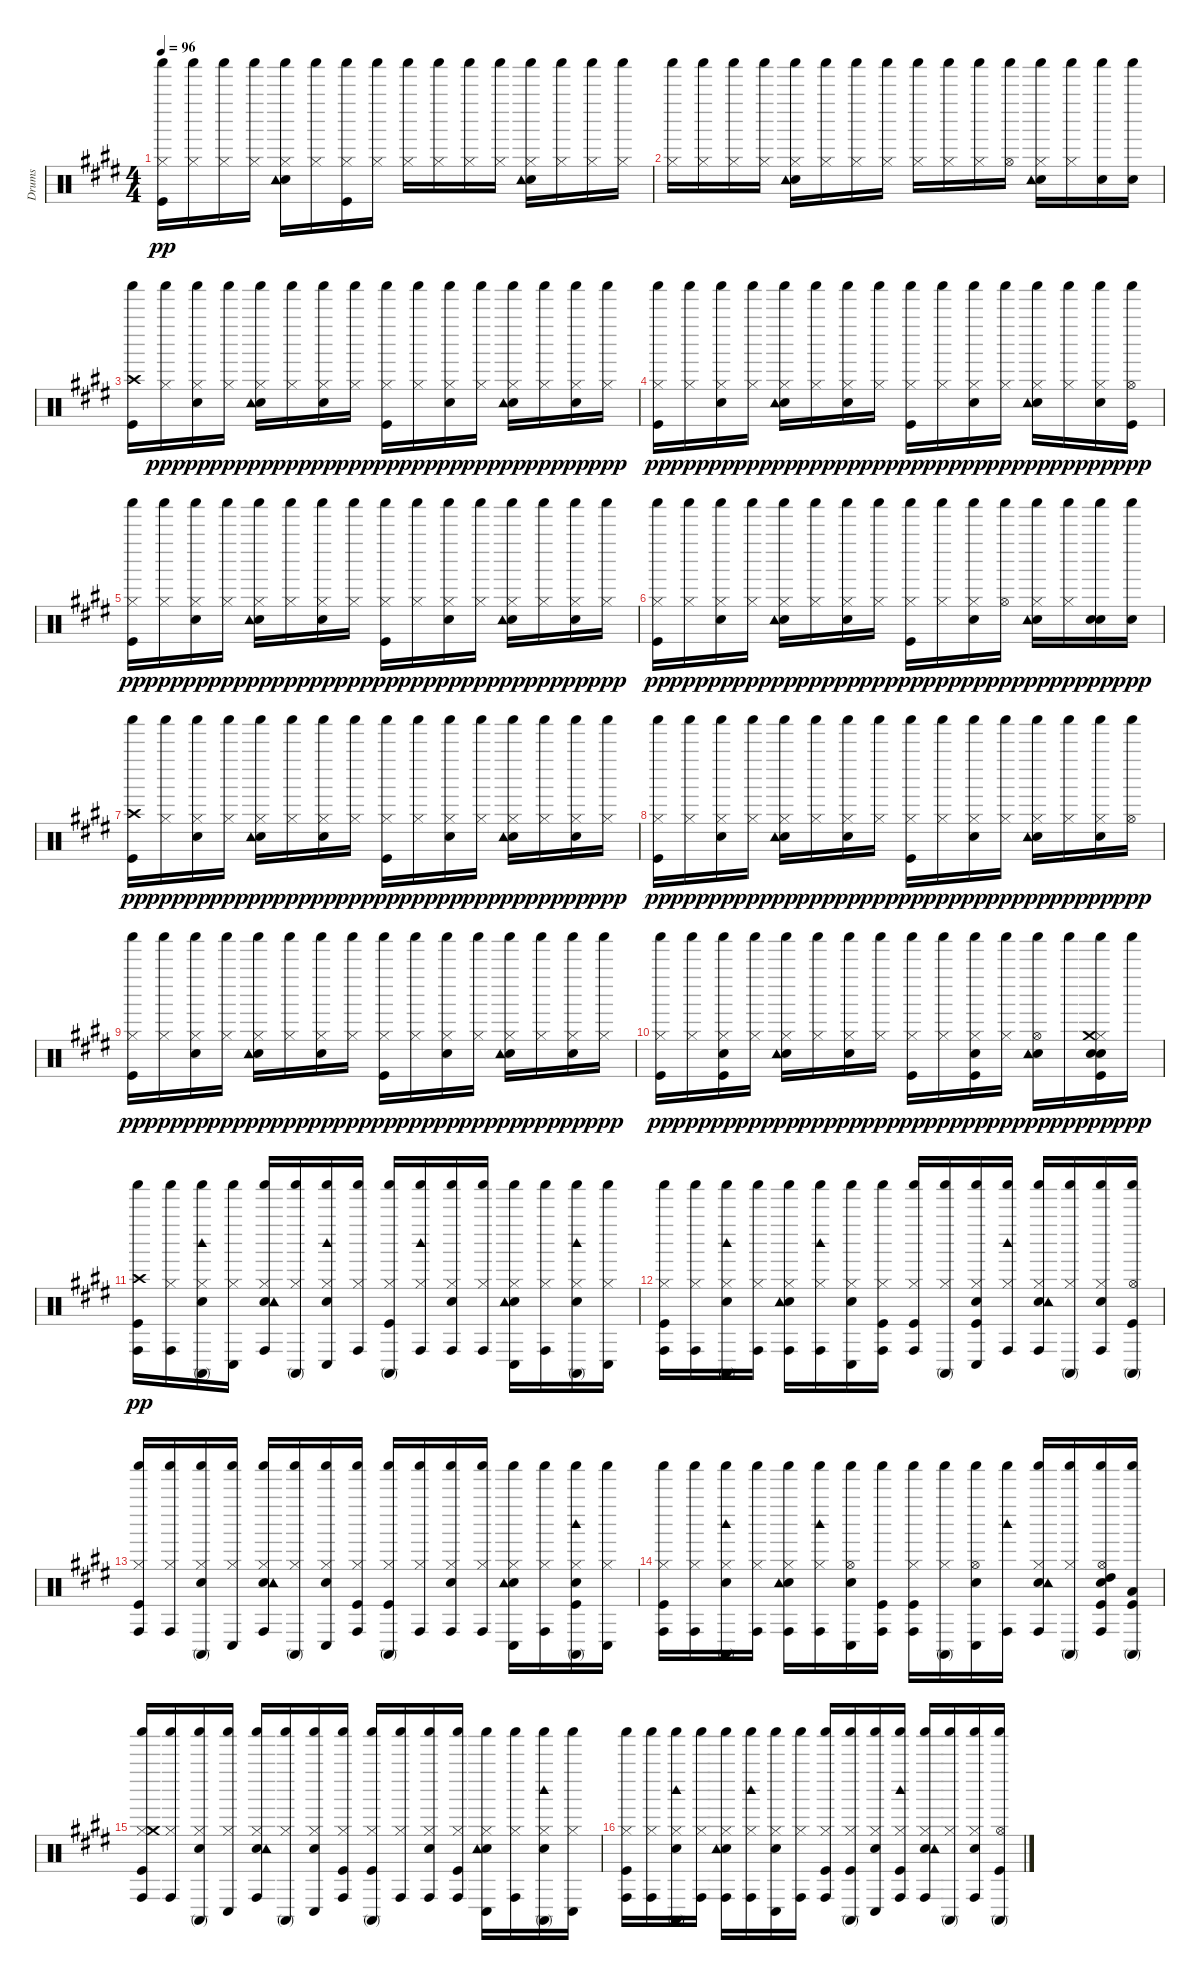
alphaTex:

\track ("Drums" "Drums") {instrument percussion}
\staff {score}
\articulation defaults
\ts (4 4)
\tempo 96
\clef neutral
\ks e
("Kick (hit)" "Hi-Hat (closed)" "Shaker (hit)").16{dy pp} ("Hi-Hat (closed)" "Shaker (hit)").16 ("Hi-Hat (closed)" "Shaker (hit)").16 ("Hi-Hat (closed)" "Shaker (hit)").16 ("Electric Snare (hit)" "Hi-Hat (closed)" "Tambourine (hit)" "Shaker (hit)").16 ("Hi-Hat (closed)" "Shaker (hit)").16 ("Kick (hit)" "Hi-Hat (closed)" "Shaker (hit)").16 ("Hi-Hat (closed)" "Shaker (hit)").16 ("Hi-Hat (closed)" "Shaker (hit)").16 ("Hi-Hat (closed)" "Shaker (hit)").16 ("Hi-Hat (closed)" "Shaker (hit)").16 ("Hi-Hat (closed)" "Shaker (hit)").16 ("Electric Snare (hit)" "Hi-Hat (closed)" "Tambourine (hit)" "Shaker (hit)").16 ("Hi-Hat (closed)" "Shaker (hit)").16 ("Hi-Hat (closed)" "Shaker (hit)").16 ("Hi-Hat (closed)" "Shaker (hit)").16 |
("Hi-Hat (closed)" "Shaker (hit)").16 ("Hi-Hat (closed)" "Shaker (hit)").16 ("Hi-Hat (closed)" "Shaker (hit)").16 ("Hi-Hat (closed)" "Shaker (hit)").16 ("Electric Snare (hit)" "Hi-Hat (closed)" "Tambourine (hit)" "Shaker (hit)").16 ("Hi-Hat (closed)" "Shaker (hit)").16 ("Hi-Hat (closed)" "Shaker (hit)").16 ("Hi-Hat (closed)" "Shaker (hit)").16 ("Hi-Hat (closed)" "Shaker (hit)").16 ("Hi-Hat (closed)" "Shaker (hit)").16 ("Hi-Hat (closed)" "Shaker (hit)").16 ("Hi-Hat (open)" "Shaker (hit)").16 ("Electric Snare (hit)" "Hi-Hat (closed)" "Tambourine (hit)" "Shaker (hit)").16 ("Hi-Hat (closed)" "Shaker (hit)").16 ("Electric Snare (hit)" "Shaker (hit)").16 ("Electric Snare (hit)" "Shaker (hit)").16 |
("Kick (hit)" "Crash high (hit)" "Shaker (hit)").16 ("Hi-Hat (closed)" "Shaker (hit)").16{dy ppp} ("Hand Clap (hit)" "Hi-Hat (closed)" "Shaker (hit)").16{dy pp} ("Hi-Hat (closed)" "Shaker (hit)").16{dy ppp} ("Electric Snare (hit)" "Hi-Hat (closed)" "Tambourine (hit)" "Shaker (hit)").16{dy pp} ("Hi-Hat (closed)" "Shaker (hit)").16{dy ppp} ("Hand Clap (hit)" "Hi-Hat (closed)" "Shaker (hit)").16{dy pp} ("Hi-Hat (closed)" "Shaker (hit)").16{dy ppp} ("Kick (hit)" "Hi-Hat (closed)" "Shaker (hit)").16{dy pp} ("Hi-Hat (closed)" "Shaker (hit)").16{dy ppp} ("Hand Clap (hit)" "Hi-Hat (closed)" "Shaker (hit)").16{dy pp} ("Hi-Hat (closed)" "Shaker (hit)").16{dy ppp} ("Electric Snare (hit)" "Hi-Hat (closed)" "Tambourine (hit)" "Shaker (hit)").16{dy pp} ("Hi-Hat (closed)" "Shaker (hit)").16{dy ppp} ("Hand Clap (hit)" "Hi-Hat (closed)" "Shaker (hit)").16{dy pp} ("Hi-Hat (closed)" "Shaker (hit)").16{dy ppp} |
("Kick (hit)" "Hi-Hat (closed)" "Shaker (hit)").16{dy pp} ("Hi-Hat (closed)" "Shaker (hit)").16{dy ppp} ("Hand Clap (hit)" "Hi-Hat (closed)" "Shaker (hit)").16{dy pp} ("Hi-Hat (closed)" "Shaker (hit)").16{dy ppp} ("Electric Snare (hit)" "Hi-Hat (closed)" "Tambourine (hit)" "Shaker (hit)").16{dy pp} ("Hi-Hat (closed)" "Shaker (hit)").16{dy ppp} ("Hand Clap (hit)" "Hi-Hat (closed)" "Shaker (hit)").16{dy pp} ("Hi-Hat (closed)" "Shaker (hit)").16{dy ppp} ("Kick (hit)" "Hi-Hat (closed)" "Shaker (hit)").16{dy pp} ("Hi-Hat (closed)" "Shaker (hit)").16{dy ppp} ("Hand Clap (hit)" "Hi-Hat (closed)" "Shaker (hit)").16{dy pp} ("Hi-Hat (closed)" "Shaker (hit)").16{dy ppp} ("Electric Snare (hit)" "Hi-Hat (closed)" "Tambourine (hit)" "Shaker (hit)").16{dy pp} ("Hi-Hat (closed)" "Shaker (hit)").16{dy ppp} ("Hand Clap (hit)" "Hi-Hat (closed)" "Shaker (hit)").16{dy pp} ("Kick (hit)" "Hi-Hat (open)" "Shaker (hit)").16{dy ppp} |
("Kick (hit)" "Hi-Hat (closed)" "Shaker (hit)").16{dy pp} ("Hi-Hat (closed)" "Shaker (hit)").16{dy ppp} ("Hand Clap (hit)" "Hi-Hat (closed)" "Shaker (hit)").16{dy pp} ("Hi-Hat (closed)" "Shaker (hit)").16{dy ppp} ("Electric Snare (hit)" "Hi-Hat (closed)" "Tambourine (hit)" "Shaker (hit)").16{dy pp} ("Hi-Hat (closed)" "Shaker (hit)").16{dy ppp} ("Hand Clap (hit)" "Hi-Hat (closed)" "Shaker (hit)").16{dy pp} ("Hi-Hat (closed)" "Shaker (hit)").16{dy ppp} ("Kick (hit)" "Hi-Hat (closed)" "Shaker (hit)").16{dy pp} ("Hi-Hat (closed)" "Shaker (hit)").16{dy ppp} ("Hand Clap (hit)" "Hi-Hat (closed)" "Shaker (hit)").16{dy pp} ("Hi-Hat (closed)" "Shaker (hit)").16{dy ppp} ("Electric Snare (hit)" "Hi-Hat (closed)" "Tambourine (hit)" "Shaker (hit)").16{dy pp} ("Hi-Hat (closed)" "Shaker (hit)").16{dy ppp} ("Hand Clap (hit)" "Hi-Hat (closed)" "Shaker (hit)").16{dy pp} ("Hi-Hat (closed)" "Shaker (hit)").16{dy ppp} |
("Kick (hit)" "Hi-Hat (closed)" "Shaker (hit)").16{dy pp} ("Hi-Hat (closed)" "Shaker (hit)").16{dy ppp} ("Hand Clap (hit)" "Hi-Hat (closed)" "Shaker (hit)").16{dy pp} ("Hi-Hat (closed)" "Shaker (hit)").16{dy ppp} ("Electric Snare (hit)" "Hi-Hat (closed)" "Tambourine (hit)" "Shaker (hit)").16{dy pp} ("Hi-Hat (closed)" "Shaker (hit)").16{dy ppp} ("Hand Clap (hit)" "Hi-Hat (closed)" "Shaker (hit)").16{dy pp} ("Hi-Hat (closed)" "Shaker (hit)").16{dy ppp} ("Kick (hit)" "Hi-Hat (closed)" "Shaker (hit)").16{dy pp} ("Hi-Hat (closed)" "Shaker (hit)").16{dy ppp} ("Hand Clap (hit)" "Hi-Hat (closed)" "Shaker (hit)").16{dy pp} ("Hi-Hat (open)" "Shaker (hit)").16{dy ppp} ("Electric Snare (hit)" "Hi-Hat (closed)" "Tambourine (hit)" "Shaker (hit)").16{dy pp} ("Hi-Hat (closed)" "Shaker (hit)").16{dy ppp} ("Hand Clap (hit)" "Electric Snare (hit)" "Shaker (hit)").16{dy pp} ("Electric Snare (hit)" "Shaker (hit)").16{dy ppp} |
("Kick (hit)" "Crash high (hit)" "Shaker (hit)").16{dy pp} ("Hi-Hat (closed)" "Shaker (hit)").16{dy ppp} ("Hand Clap (hit)" "Hi-Hat (closed)" "Shaker (hit)").16{dy pp} ("Hi-Hat (closed)" "Shaker (hit)").16{dy ppp} ("Electric Snare (hit)" "Hi-Hat (closed)" "Tambourine (hit)" "Shaker (hit)").16{dy pp} ("Hi-Hat (closed)" "Shaker (hit)").16{dy ppp} ("Hand Clap (hit)" "Hi-Hat (closed)" "Shaker (hit)").16{dy pp} ("Hi-Hat (closed)" "Shaker (hit)").16{dy ppp} ("Kick (hit)" "Hi-Hat (closed)" "Shaker (hit)").16{dy pp} ("Hi-Hat (closed)" "Shaker (hit)").16{dy ppp} ("Hand Clap (hit)" "Hi-Hat (closed)" "Shaker (hit)").16{dy pp} ("Hi-Hat (closed)" "Shaker (hit)").16{dy ppp} ("Electric Snare (hit)" "Hi-Hat (closed)" "Tambourine (hit)" "Shaker (hit)").16{dy pp} ("Hi-Hat (closed)" "Shaker (hit)").16{dy ppp} ("Hand Clap (hit)" "Hi-Hat (closed)" "Shaker (hit)").16{dy pp} ("Hi-Hat (closed)" "Shaker (hit)").16{dy ppp} |
("Kick (hit)" "Hi-Hat (closed)" "Shaker (hit)").16{dy pp} ("Hi-Hat (closed)" "Shaker (hit)").16{dy ppp} ("Hand Clap (hit)" "Hi-Hat (closed)" "Shaker (hit)").16{dy pp} ("Hi-Hat (closed)" "Shaker (hit)").16{dy ppp} ("Electric Snare (hit)" "Hi-Hat (closed)" "Tambourine (hit)" "Shaker (hit)").16{dy pp} ("Hi-Hat (closed)" "Shaker (hit)").16{dy ppp} ("Hand Clap (hit)" "Hi-Hat (closed)" "Shaker (hit)").16{dy pp} ("Hi-Hat (closed)" "Shaker (hit)").16{dy ppp} ("Kick (hit)" "Hi-Hat (closed)" "Shaker (hit)").16{dy pp} ("Hi-Hat (closed)" "Shaker (hit)").16{dy ppp} ("Hand Clap (hit)" "Hi-Hat (closed)" "Shaker (hit)").16{dy pp} ("Hi-Hat (closed)" "Shaker (hit)").16{dy ppp} ("Electric Snare (hit)" "Hi-Hat (closed)" "Tambourine (hit)" "Shaker (hit)").16{dy pp} ("Hi-Hat (closed)" "Shaker (hit)").16{dy ppp} ("Hand Clap (hit)" "Hi-Hat (closed)" "Shaker (hit)").16{dy pp} ("Hi-Hat (open)" "Shaker (hit)").16{dy ppp} |
("Kick (hit)" "Hi-Hat (closed)" "Shaker (hit)").16{dy pp} ("Hi-Hat (closed)" "Shaker (hit)").16{dy ppp} ("Hand Clap (hit)" "Hi-Hat (closed)" "Shaker (hit)").16{dy pp} ("Hi-Hat (closed)" "Shaker (hit)").16{dy ppp} ("Electric Snare (hit)" "Hi-Hat (closed)" "Tambourine (hit)" "Shaker (hit)").16{dy pp} ("Hi-Hat (closed)" "Shaker (hit)").16{dy ppp} ("Hand Clap (hit)" "Hi-Hat (closed)" "Shaker (hit)").16{dy pp} ("Hi-Hat (closed)" "Shaker (hit)").16{dy ppp} ("Kick (hit)" "Hi-Hat (closed)" "Shaker (hit)").16{dy pp} ("Hi-Hat (closed)" "Shaker (hit)").16{dy ppp} ("Hand Clap (hit)" "Hi-Hat (closed)" "Shaker (hit)").16{dy pp} ("Hi-Hat (closed)" "Shaker (hit)").16{dy ppp} ("Electric Snare (hit)" "Hi-Hat (closed)" "Tambourine (hit)" "Shaker (hit)").16{dy pp} ("Hi-Hat (closed)" "Shaker (hit)").16{dy ppp} ("Hand Clap (hit)" "Hi-Hat (closed)" "Shaker (hit)").16{dy pp} ("Hi-Hat (closed)" "Shaker (hit)").16{dy ppp} |
("Kick (hit)" "Hi-Hat (closed)" "Shaker (hit)").16{dy pp} ("Hi-Hat (closed)" "Shaker (hit)").16{dy ppp} ("Kick (hit)" "Hand Clap (hit)" "Hi-Hat (closed)" "Shaker (hit)").16{dy pp} ("Hi-Hat (closed)" "Shaker (hit)").16{dy ppp} ("Electric Snare (hit)" "Hi-Hat (closed)" "Tambourine (hit)" "Shaker (hit)").16{dy pp} ("Hi-Hat (closed)" "Shaker (hit)").16{dy ppp} ("Hand Clap (hit)" "Hi-Hat (closed)" "Shaker (hit)").16{dy pp} ("Hi-Hat (closed)" "Shaker (hit)").16{dy ppp} ("Kick (hit)" "Hi-Hat (closed)" "Shaker (hit)").16{dy pp} ("Hi-Hat (closed)" "Shaker (hit)").16{dy ppp} ("Kick (hit)" "Hand Clap (hit)" "Hi-Hat (closed)" "Shaker (hit)").16{dy pp} ("Hi-Hat (closed)" "Shaker (hit)").16{dy ppp} ("Electric Snare (hit)" "Hi-Hat (open)" "Tambourine (hit)" "Shaker (hit)").16{dy pp} "Shaker (hit)".16{dy ppp} ("Kick (hit)" "Hand Clap (hit)" "Electric Snare (hit)" "Hi-Hat (closed)" "Crash medium (hit)" "Shaker (hit)").16{dy pp} "Shaker (hit)".16{dy ppp} |
("Kick (hit)" "Crash high (hit)" "Conga high (hit)" "Shaker (hit)").16{dy pp} ("Hi-Hat (closed)" "Conga high (hit)" "Shaker (hit)").16 ("Hand Clap (hit)" "Hi-Hat (closed)" "Conga high (mute)" "Woodblock high (hit)" "Shaker (hit)").16 ("Hi-Hat (closed)" "Conga low (hit)" "Shaker (hit)").16 ("Electric Snare (hit)" "Hi-Hat (closed)" "Tambourine (hit)" "Conga high (hit)" "Shaker (hit)").16 ("Hi-Hat (closed)" "Conga high (mute)" "Shaker (hit)").16 ("Hand Clap (hit)" "Hi-Hat (closed)" "Conga low (hit)" "Woodblock high (hit)" "Shaker (hit)").16 ("Hi-Hat (closed)" "Conga high (hit)" "Shaker (hit)").16 ("Kick (hit)" "Hi-Hat (closed)" "Conga high (mute)" "Shaker (hit)").16 ("Hi-Hat (closed)" "Conga high (hit)" "Woodblock high (hit)" "Shaker (hit)").16 ("Hand Clap (hit)" "Hi-Hat (closed)" "Conga high (hit)" "Shaker (hit)").16 ("Hi-Hat (closed)" "Conga high (hit)" "Shaker (hit)").16 ("Electric Snare (hit)" "Hi-Hat (closed)" "Tambourine (hit)" "Conga low (hit)" "Shaker (hit)").16 ("Hi-Hat (closed)" "Conga high (hit)" "Shaker (hit)").16 ("Hand Clap (hit)" "Hi-Hat (closed)" "Conga high (mute)" "Woodblock high (hit)" "Shaker (hit)").16 ("Hi-Hat (closed)" "Conga low (hit)" "Shaker (hit)").16 |
("Kick (hit)" "Hi-Hat (closed)" "Conga high (hit)" "Shaker (hit)").16 ("Hi-Hat (closed)" "Conga high (hit)" "Shaker (hit)").16 ("Hand Clap (hit)" "Hi-Hat (closed)" "Conga high (mute)" "Woodblock high (hit)" "Shaker (hit)").16 ("Hi-Hat (closed)" "Conga high (hit)" "Shaker (hit)").16 ("Electric Snare (hit)" "Hi-Hat (closed)" "Tambourine (hit)" "Conga high (hit)" "Shaker (hit)").16 ("Hi-Hat (closed)" "Conga high (hit)" "Woodblock high (hit)" "Shaker (hit)").16 ("Hand Clap (hit)" "Hi-Hat (closed)" "Conga low (hit)" "Shaker (hit)").16 ("Kick (hit)" "Hi-Hat (closed)" "Conga high (hit)" "Shaker (hit)").16 ("Kick (hit)" "Hi-Hat (closed)" "Conga high (hit)" "Shaker (hit)").16 ("Hi-Hat (closed)" "Conga high (mute)" "Shaker (hit)").16 ("Kick (hit)" "Hand Clap (hit)" "Hi-Hat (closed)" "Conga low (hit)" "Shaker (hit)").16 ("Hi-Hat (closed)" "Conga high (hit)" "Woodblock high (hit)" "Shaker (hit)").16 ("Electric Snare (hit)" "Hi-Hat (closed)" "Tambourine (hit)" "Conga high (hit)" "Shaker (hit)").16 ("Hi-Hat (closed)" "Conga high (mute)" "Shaker (hit)").16 ("Hand Clap (hit)" "Hi-Hat (closed)" "Conga high (hit)" "Shaker (hit)").16 ("Kick (hit)" "Hi-Hat (open)" "Conga high (mute)" "Shaker (hit)").16 |
("Kick (hit)" "Hi-Hat (closed)" "Conga high (hit)" "Shaker (hit)").16 ("Hi-Hat (closed)" "Conga high (hit)" "Shaker (hit)").16 ("Hand Clap (hit)" "Hi-Hat (closed)" "Conga high (mute)" "Shaker (hit)").16 ("Hi-Hat (closed)" "Conga low (hit)" "Shaker (hit)").16 ("Electric Snare (hit)" "Hi-Hat (closed)" "Tambourine (hit)" "Conga high (hit)" "Shaker (hit)").16 ("Hi-Hat (closed)" "Conga high (mute)" "Shaker (hit)").16 ("Hand Clap (hit)" "Hi-Hat (closed)" "Conga low (hit)" "Shaker (hit)").16 ("Kick (hit)" "Hi-Hat (closed)" "Conga high (hit)" "Shaker (hit)").16 ("Kick (hit)" "Hi-Hat (closed)" "Conga high (mute)" "Shaker (hit)").16 ("Hi-Hat (closed)" "Conga high (hit)" "Shaker (hit)").16 ("Hand Clap (hit)" "Hi-Hat (closed)" "Conga high (hit)" "Shaker (hit)").16 ("Hi-Hat (closed)" "Conga high (hit)" "Shaker (hit)").16 ("Electric Snare (hit)" "Hi-Hat (closed)" "Tambourine (hit)" "Conga low (hit)" "Shaker (hit)").16 ("Hi-Hat (closed)" "Conga high (hit)" "Shaker (hit)").16 ("Kick (hit)" "Hand Clap (hit)" "Hi-Hat (closed)" "Conga high (mute)" "Woodblock high (hit)" "Shaker (hit)").16 ("Hi-Hat (closed)" "Conga low (hit)" "Shaker (hit)").16 |
("Kick (hit)" "Hi-Hat (closed)" "Conga high (hit)" "Shaker (hit)").16 ("Hi-Hat (closed)" "Conga high (hit)" "Shaker (hit)").16 ("Hand Clap (hit)" "Hi-Hat (closed)" "Conga high (mute)" "Woodblock high (hit)" "Shaker (hit)").16 ("Hi-Hat (closed)" "Conga high (hit)" "Shaker (hit)").16 ("Electric Snare (hit)" "Hi-Hat (closed)" "Tambourine (hit)" "Conga high (hit)" "Shaker (hit)").16 ("Hi-Hat (closed)" "Conga high (hit)" "Woodblock high (hit)" "Shaker (hit)").16 ("Hand Clap (hit)" "Hi-Hat (open)" "Conga low (hit)" "Shaker (hit)").16 ("Kick (hit)" "Conga high (hit)" "Shaker (hit)").16 ("Kick (hit)" "Hi-Hat (closed)" "Conga high (hit)" "Shaker (hit)").16 ("Hi-Hat (closed)" "Conga high (mute)" "Shaker (hit)").16 ("Hand Clap (hit)" "Hi-Hat (open)" "Conga low (hit)" "Shaker (hit)").16 ("Conga high (hit)" "Woodblock high (hit)" "Shaker (hit)").16 ("Electric Snare (hit)" "Hi-Hat (closed)" "Tambourine (hit)" "Conga high (hit)" "Shaker (hit)").16 ("Hi-Hat (closed)" "Conga high (mute)" "Shaker (hit)").16 ("Kick (hit)" "Hand Clap (hit)" "Hi-Hat (open)" "High Tom (hit)" "Conga high (hit)" "Shaker (hit)").16 ("Kick (hit)" "Low Tom (hit)" "Conga high (mute)" "Shaker (hit)").16 |
("Kick (hit)" "Hi-Hat (closed)" "Crash medium (hit)" "Conga high (hit)" "Shaker (hit)").16 ("Hi-Hat (closed)" "Conga high (hit)" "Shaker (hit)").16 ("Hand Clap (hit)" "Hi-Hat (closed)" "Conga high (mute)" "Shaker (hit)").16 ("Hi-Hat (closed)" "Conga low (hit)" "Shaker (hit)").16 ("Electric Snare (hit)" "Hi-Hat (closed)" "Tambourine (hit)" "Conga high (hit)" "Shaker (hit)").16 ("Hi-Hat (closed)" "Conga high (mute)" "Shaker (hit)").16 ("Hand Clap (hit)" "Hi-Hat (closed)" "Conga low (hit)" "Shaker (hit)").16 ("Kick (hit)" "Hi-Hat (closed)" "Conga high (hit)" "Shaker (hit)").16 ("Kick (hit)" "Hi-Hat (closed)" "Conga high (mute)" "Shaker (hit)").16 ("Hi-Hat (closed)" "Conga high (hit)" "Shaker (hit)").16 ("Hand Clap (hit)" "Hi-Hat (closed)" "Conga high (hit)" "Shaker (hit)").16 ("Kick (hit)" "Hi-Hat (closed)" "Conga high (hit)" "Shaker (hit)").16 ("Electric Snare (hit)" "Hi-Hat (closed)" "Tambourine (hit)" "Conga low (hit)" "Shaker (hit)").16 ("Hi-Hat (closed)" "Conga high (hit)" "Shaker (hit)").16 ("Hand Clap (hit)" "Hi-Hat (closed)" "Conga high (mute)" "Woodblock high (hit)" "Shaker (hit)").16 ("Hi-Hat (closed)" "Conga low (hit)" "Shaker (hit)").16 |
("Kick (hit)" "Hi-Hat (closed)" "Conga high (hit)" "Shaker (hit)").16 ("Hi-Hat (closed)" "Conga high (hit)" "Shaker (hit)").16 ("Hand Clap (hit)" "Hi-Hat (closed)" "Conga high (mute)" "Woodblock high (hit)" "Shaker (hit)").16 ("Hi-Hat (closed)" "Conga high (hit)" "Shaker (hit)").16 ("Electric Snare (hit)" "Hi-Hat (closed)" "Tambourine (hit)" "Conga high (hit)" "Shaker (hit)").16 ("Hi-Hat (closed)" "Conga high (hit)" "Woodblock high (hit)" "Shaker (hit)").16 ("Hand Clap (hit)" "Hi-Hat (closed)" "Conga low (hit)" "Shaker (hit)").16 ("Hi-Hat (closed)" "Conga high (hit)" "Shaker (hit)").16 ("Kick (hit)" "Hi-Hat (closed)" "Conga high (hit)" "Shaker (hit)").16 ("Kick (hit)" "Hi-Hat (closed)" "Conga high (mute)" "Shaker (hit)").16 ("Hand Clap (hit)" "Hi-Hat (closed)" "Conga low (hit)" "Shaker (hit)").16 ("Kick (hit)" "Hi-Hat (closed)" "Conga high (hit)" "Woodblock high (hit)" "Shaker (hit)").16 ("Electric Snare (hit)" "Hi-Hat (closed)" "Tambourine (hit)" "Conga high (hit)" "Shaker (hit)").16 ("Hi-Hat (closed)" "Conga high (mute)" "Shaker (hit)").16 ("Hand Clap (hit)" "Hi-Hat (closed)" "Conga high (hit)" "Shaker (hit)").16 ("Kick (hit)" "Hi-Hat (open)" "Conga high (mute)" "Shaker (hit)").16
